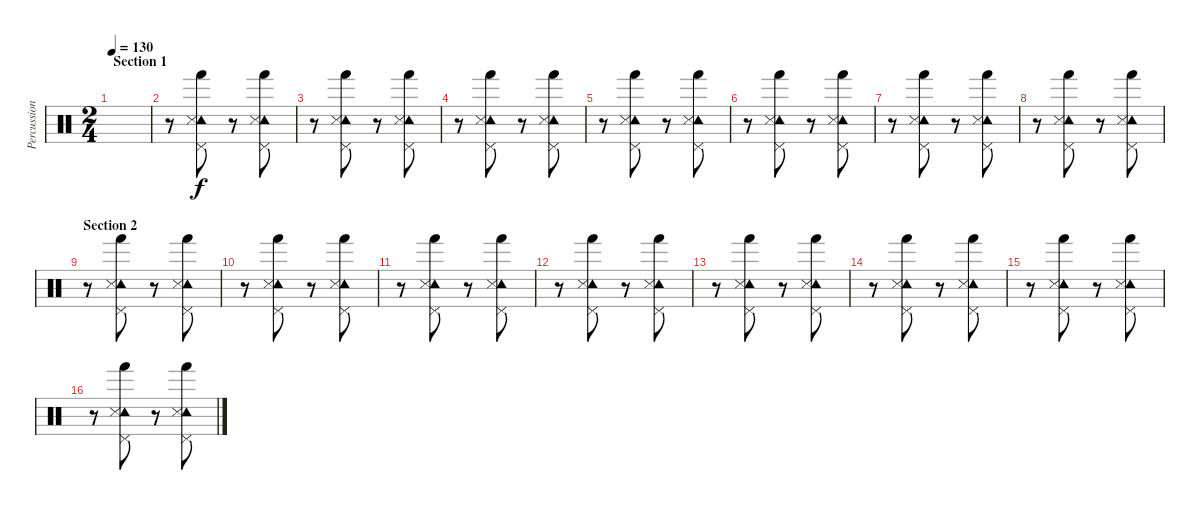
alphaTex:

\track ("Percussion" "Percussion") {instrument percussion}
\staff {score}
\articulation defaults
\ts (2 4)
\section ("" "Section 1")
\tempo 130
\clef neutral
\ks c
|
r.8 ("Tambourine (hit)" "Snare (side stick) 3" "Pedal Hi-Hat (hit)" "Hand (hit)").8 r.8 ("Tambourine (hit)" "Snare (side stick) 3" "Pedal Hi-Hat (hit)" "Hand (hit)").8 |
r.8 ("Tambourine (hit)" "Snare (side stick) 3" "Pedal Hi-Hat (hit)" "Hand (hit)").8 r.8 ("Tambourine (hit)" "Snare (side stick) 3" "Pedal Hi-Hat (hit)" "Hand (hit)").8 |
r.8 ("Tambourine (hit)" "Snare (side stick) 3" "Pedal Hi-Hat (hit)" "Hand (hit)").8 r.8 ("Tambourine (hit)" "Snare (side stick) 3" "Pedal Hi-Hat (hit)" "Hand (hit)").8 |
r.8 ("Tambourine (hit)" "Snare (side stick) 3" "Pedal Hi-Hat (hit)" "Hand (hit)").8 r.8 ("Tambourine (hit)" "Snare (side stick) 3" "Pedal Hi-Hat (hit)" "Hand (hit)").8 |
r.8 ("Tambourine (hit)" "Snare (side stick) 3" "Pedal Hi-Hat (hit)" "Hand (hit)").8 r.8 ("Tambourine (hit)" "Snare (side stick) 3" "Pedal Hi-Hat (hit)" "Hand (hit)").8 |
r.8 ("Tambourine (hit)" "Snare (side stick) 3" "Pedal Hi-Hat (hit)" "Hand (hit)").8 r.8 ("Tambourine (hit)" "Snare (side stick) 3" "Pedal Hi-Hat (hit)" "Hand (hit)").8 |
r.8 ("Tambourine (hit)" "Snare (side stick) 3" "Pedal Hi-Hat (hit)" "Hand (hit)").8 r.8 ("Tambourine (hit)" "Snare (side stick) 3" "Pedal Hi-Hat (hit)" "Hand (hit)").8 |
\section ("" "Section 2")
r.8 ("Tambourine (hit)" "Snare (side stick) 3" "Pedal Hi-Hat (hit)" "Hand (hit)").8 r.8 ("Tambourine (hit)" "Snare (side stick) 3" "Pedal Hi-Hat (hit)" "Hand (hit)").8 |
r.8 ("Tambourine (hit)" "Snare (side stick) 3" "Pedal Hi-Hat (hit)" "Hand (hit)").8 r.8 ("Tambourine (hit)" "Snare (side stick) 3" "Pedal Hi-Hat (hit)" "Hand (hit)").8 |
r.8 ("Tambourine (hit)" "Snare (side stick) 3" "Pedal Hi-Hat (hit)" "Hand (hit)").8 r.8 ("Tambourine (hit)" "Snare (side stick) 3" "Pedal Hi-Hat (hit)" "Hand (hit)").8 |
r.8 ("Tambourine (hit)" "Snare (side stick) 3" "Pedal Hi-Hat (hit)" "Hand (hit)").8 r.8 ("Tambourine (hit)" "Snare (side stick) 3" "Pedal Hi-Hat (hit)" "Hand (hit)").8 |
r.8 ("Tambourine (hit)" "Snare (side stick) 3" "Pedal Hi-Hat (hit)" "Hand (hit)").8 r.8 ("Tambourine (hit)" "Snare (side stick) 3" "Pedal Hi-Hat (hit)" "Hand (hit)").8 |
r.8 ("Tambourine (hit)" "Snare (side stick) 3" "Pedal Hi-Hat (hit)" "Hand (hit)").8 r.8 ("Tambourine (hit)" "Snare (side stick) 3" "Pedal Hi-Hat (hit)" "Hand (hit)").8 |
r.8 ("Tambourine (hit)" "Snare (side stick) 3" "Pedal Hi-Hat (hit)" "Hand (hit)").8 r.8 ("Tambourine (hit)" "Snare (side stick) 3" "Pedal Hi-Hat (hit)" "Hand (hit)").8 |
r.8 ("Tambourine (hit)" "Snare (side stick) 3" "Pedal Hi-Hat (hit)" "Hand (hit)").8 r.8 ("Tambourine (hit)" "Snare (side stick) 3" "Pedal Hi-Hat (hit)" "Hand (hit)").8
